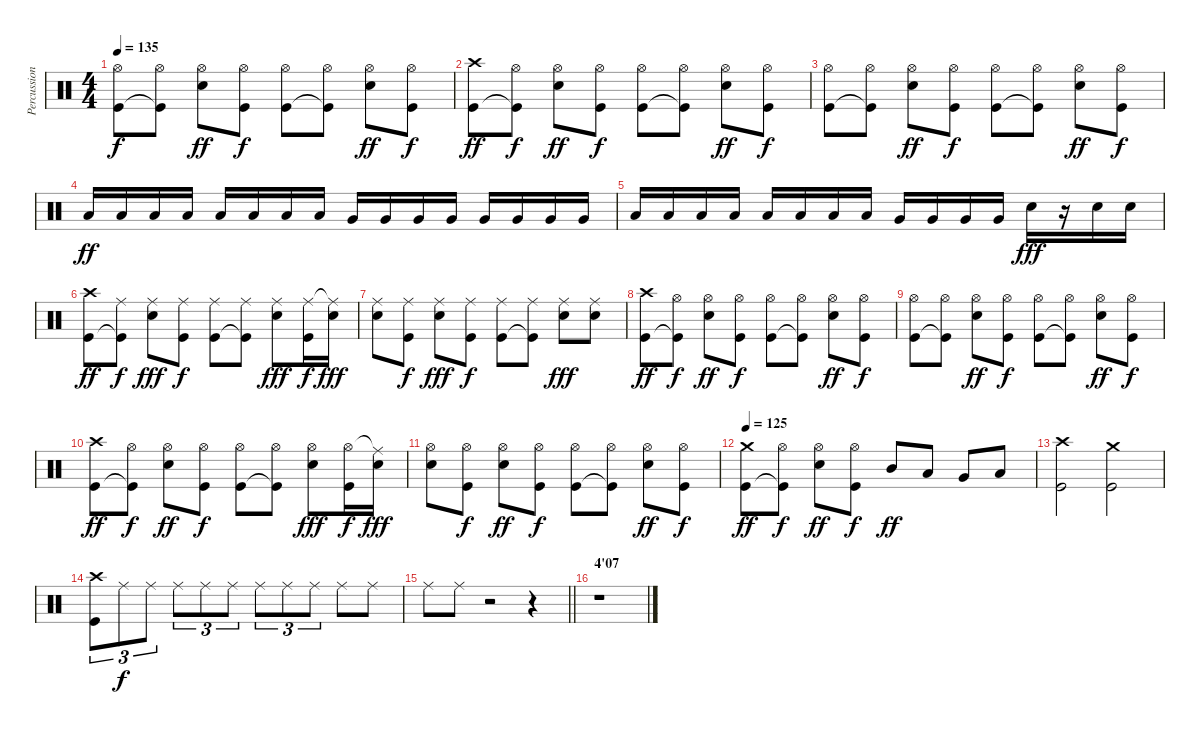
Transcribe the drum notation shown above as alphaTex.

\track ("Percussion" "Percussion") {instrument percussion}
\staff {score}
\articulation defaults
\ts (4 4)
\tempo 135
\clef neutral
\ks c
("Hi-Hat (open)" "Kick (hit)").8{dy f} ("Hi-Hat (open)" "Kick (hit)"{t}).8 ("Hi-Hat (open)" "Electric Snare (hit)").8{dy ff} ("Hi-Hat (open)" "Kick (hit)").8{dy f} ("Hi-Hat (open)" "Kick (hit)").8 ("Hi-Hat (open)" "Kick (hit)"{t}).8 ("Hi-Hat (open)" "Electric Snare (hit)").8{dy ff} ("Hi-Hat (open)" "Kick (hit)").8{dy f} |
("Crash high (hit)" "Kick (hit)").8{dy ff} ("Hi-Hat (open)" "Kick (hit)"{t}).8{dy f} ("Hi-Hat (open)" "Electric Snare (hit)").8{dy ff} ("Hi-Hat (open)" "Kick (hit)").8{dy f} ("Hi-Hat (open)" "Kick (hit)").8 ("Hi-Hat (open)" "Kick (hit)"{t}).8 ("Hi-Hat (open)" "Electric Snare (hit)").8{dy ff} ("Hi-Hat (open)" "Kick (hit)").8{dy f} |
("Hi-Hat (open)" "Kick (hit)").8 ("Hi-Hat (open)" "Kick (hit)"{t}).8 ("Hi-Hat (open)" "Electric Snare (hit)").8{dy ff} ("Hi-Hat (open)" "Kick (hit)").8{dy f} ("Hi-Hat (open)" "Kick (hit)").8 ("Hi-Hat (open)" "Kick (hit)"{t}).8 ("Hi-Hat (open)" "Electric Snare (hit)").8{dy ff} ("Hi-Hat (open)" "Kick (hit)").8{dy f} |
"Low Tom (hit)".16{dy ff} "Low Tom (hit)".16 "Low Tom (hit)".16 "Low Tom (hit)".16 "Low Tom (hit)".16 "Low Tom (hit)".16 "Low Tom (hit)".16 "Low Tom (hit)".16 "Very Low Tom (hit)".16 "Very Low Tom (hit)".16 "Very Low Tom (hit)".16 "Very Low Tom (hit)".16 "Very Low Tom (hit)".16 "Very Low Tom (hit)".16 "Very Low Tom (hit)".16 "Very Low Tom (hit)".16 |
"Low Floor Tom (hit)".16 "Low Floor Tom (hit)".16 "Low Floor Tom (hit)".16 "Low Floor Tom (hit)".16 "Low Floor Tom (hit)".16 "Low Floor Tom (hit)".16 "Low Floor Tom (hit)".16 "Low Floor Tom (hit)".16 "Very Low Tom (hit)".16 "Very Low Tom (hit)".16 "Very Low Tom (hit)".16 "Very Low Tom (hit)".16 "Electric Snare (hit)".16{dy fff} r.16 "Electric Snare (hit)".16 "Electric Snare (hit)".16 |
("Crash high (hit)" "Kick (hit)").8{dy ff} ("Ride (middle)" "Kick (hit)"{t}).8{dy f} ("Ride (middle)" "Electric Snare (hit)").8{dy fff} ("Ride (middle)" "Kick (hit)").8{dy f} ("Ride (middle)" "Kick (hit)").8 ("Ride (middle)" "Kick (hit)"{t}).8 ("Ride (middle)" "Electric Snare (hit)").8{dy fff} ("Ride (middle)" "Kick (hit)").16{dy f} ("Ride (middle)"{t} "Electric Snare (hit)").16{dy fff} |
("Ride (middle)" "Electric Snare (hit)").8 ("Ride (middle)" "Kick (hit)").8{dy f} ("Ride (middle)" "Electric Snare (hit)").8{dy fff} ("Ride (middle)" "Kick (hit)").8{dy f} ("Ride (middle)" "Kick (hit)").8 ("Ride (middle)" "Kick (hit)"{t}).8 ("Ride (middle)" "Electric Snare (hit)").8{dy fff} ("Ride (middle)" "Electric Snare (hit)").8 |
("Crash high (hit)" "Kick (hit)").8{dy ff} ("Hi-Hat (open)" "Kick (hit)"{t}).8{dy f} ("Hi-Hat (open)" "Electric Snare (hit)").8{dy ff} ("Hi-Hat (open)" "Kick (hit)").8{dy f} ("Hi-Hat (open)" "Kick (hit)").8 ("Hi-Hat (open)" "Kick (hit)"{t}).8 ("Hi-Hat (open)" "Electric Snare (hit)").8{dy ff} ("Hi-Hat (open)" "Kick (hit)").8{dy f} |
("Hi-Hat (open)" "Kick (hit)").8 ("Hi-Hat (open)" "Kick (hit)"{t}).8 ("Hi-Hat (open)" "Electric Snare (hit)").8{dy ff} ("Hi-Hat (open)" "Kick (hit)").8{dy f} ("Hi-Hat (open)" "Kick (hit)").8 ("Hi-Hat (open)" "Kick (hit)"{t}).8 ("Hi-Hat (open)" "Electric Snare (hit)").8{dy ff} ("Hi-Hat (open)" "Kick (hit)").8{dy f} |
("Crash high (hit)" "Kick (hit)").8{dy ff} ("Hi-Hat (open)" "Kick (hit)"{t}).8{dy f} ("Hi-Hat (open)" "Electric Snare (hit)").8{dy ff} ("Hi-Hat (open)" "Kick (hit)").8{dy f} ("Hi-Hat (open)" "Kick (hit)").8 ("Hi-Hat (open)" "Kick (hit)"{t}).8 ("Hi-Hat (open)" "Electric Snare (hit)").8{dy fff} ("Hi-Hat (open)" "Kick (hit)").16{dy f} ("Ride (middle)"{t} "Electric Snare (hit)").16{dy fff} |
("Hi-Hat (open)" "Electric Snare (hit)").8 ("Hi-Hat (open)" "Kick (hit)").8{dy f} ("Hi-Hat (open)" "Electric Snare (hit)").8{dy ff} ("Hi-Hat (open)" "Kick (hit)").8{dy f} ("Hi-Hat (open)" "Kick (hit)").8 ("Hi-Hat (open)" "Kick (hit)"{t}).8 ("Hi-Hat (open)" "Electric Snare (hit)").8{dy ff} ("Hi-Hat (open)" "Kick (hit)").8{dy f} |
\tempo 125
("Crash medium (hit)" "Kick (hit)").8{dy ff} ("Hi-Hat (open)" "Kick (hit)"{t}).8{dy f} ("Hi-Hat (open)" "Electric Snare (hit)").8{dy ff} ("Hi-Hat (open)" "Kick (hit)").8{dy f} "Mid Tom (hit)".8{dy ff} "Low Tom (hit)".8 "Very Low Tom (hit)".8 "Low Floor Tom (hit)".8 |
("Crash high (hit)" "Kick (hit)").2 ("Crash medium (hit)" "Kick (hit)").2 |
("Crash high (hit)" "Kick (hit)").8{tu (3 2)} "Ride (middle)".8{tu (3 2) dy f} "Ride (middle)".8{tu (3 2)} "Ride (middle)".8{tu (3 2)} "Ride (middle)".8{tu (3 2)} "Ride (middle)".8{tu (3 2)} "Ride (middle)".8{tu (3 2)} "Ride (middle)".8{tu (3 2)} "Ride (middle)".8{tu (3 2)} "Ride (middle)".8 "Ride (middle)".8 |
\barLineRight lightlight "Ride (middle)".8 "Ride (middle)".8
r.2 r.4 |
\section ("" "4'07")
r.1
